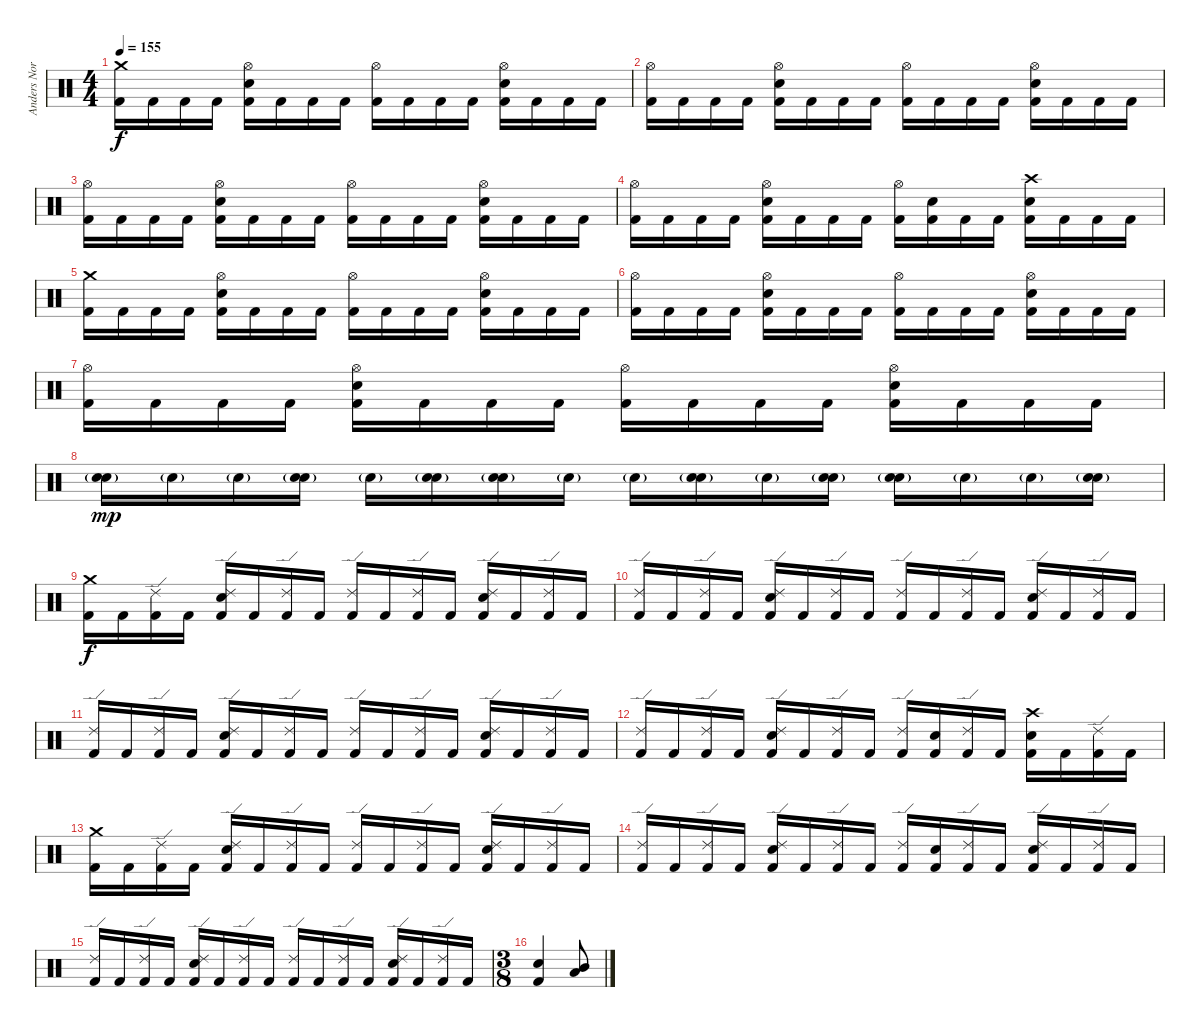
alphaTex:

\track ("Anders Nordin" "Anders Nor") {instrument percussion}
\staff {score}
\articulation defaults
\ts (4 4)
\tempo 155
\clef neutral
\ks c
("Kick (hit) 2" "Crash medium (hit)").16{dy f} "Kick (hit) 2".16 "Kick (hit) 2".16 "Kick (hit) 2".16 ("Kick (hit) 2" "Electric Snare (hit)" "Hi-Hat (open)").16 "Kick (hit) 2".16 "Kick (hit) 2".16 "Kick (hit) 2".16 ("Kick (hit) 2" "Hi-Hat (open)").16 "Kick (hit) 2".16 "Kick (hit) 2".16 "Kick (hit) 2".16 ("Kick (hit) 2" "Electric Snare (hit)" "Hi-Hat (open)").16 "Kick (hit) 2".16 "Kick (hit) 2".16 "Kick (hit) 2".16 |
("Kick (hit) 2" "Hi-Hat (open)").16 "Kick (hit) 2".16 "Kick (hit) 2".16 "Kick (hit) 2".16 ("Kick (hit) 2" "Electric Snare (hit)" "Hi-Hat (open)").16 "Kick (hit) 2".16 "Kick (hit) 2".16 "Kick (hit) 2".16 ("Kick (hit) 2" "Hi-Hat (open)").16 "Kick (hit) 2".16 "Kick (hit) 2".16 "Kick (hit) 2".16 ("Kick (hit) 2" "Electric Snare (hit)" "Hi-Hat (open)").16 "Kick (hit) 2".16 "Kick (hit) 2".16 "Kick (hit) 2".16 |
("Kick (hit) 2" "Hi-Hat (open)").16 "Kick (hit) 2".16 "Kick (hit) 2".16 "Kick (hit) 2".16 ("Kick (hit) 2" "Electric Snare (hit)" "Hi-Hat (open)").16 "Kick (hit) 2".16 "Kick (hit) 2".16 "Kick (hit) 2".16 ("Kick (hit) 2" "Hi-Hat (open)").16 "Kick (hit) 2".16 "Kick (hit) 2".16 "Kick (hit) 2".16 ("Kick (hit) 2" "Electric Snare (hit)" "Hi-Hat (open)").16 "Kick (hit) 2".16 "Kick (hit) 2".16 "Kick (hit) 2".16 |
("Kick (hit) 2" "Hi-Hat (open)").16 "Kick (hit) 2".16 "Kick (hit) 2".16 "Kick (hit) 2".16 ("Kick (hit) 2" "Electric Snare (hit)" "Hi-Hat (open)").16 "Kick (hit) 2".16 "Kick (hit) 2".16 "Kick (hit) 2".16 ("Kick (hit) 2" "Hi-Hat (open)").16 ("Kick (hit) 2" "Electric Snare (hit)").16 "Kick (hit) 2".16 "Kick (hit) 2".16 ("Kick (hit) 2" "Electric Snare (hit)" "Crash high (hit)").16 "Kick (hit) 2".16 "Kick (hit) 2".16 "Kick (hit) 2".16 |
("Kick (hit) 2" "Crash medium (hit)").16 "Kick (hit) 2".16 "Kick (hit) 2".16 "Kick (hit) 2".16 ("Kick (hit) 2" "Electric Snare (hit)" "Hi-Hat (open)").16 "Kick (hit) 2".16 "Kick (hit) 2".16 "Kick (hit) 2".16 ("Kick (hit) 2" "Hi-Hat (open)").16 "Kick (hit) 2".16 "Kick (hit) 2".16 "Kick (hit) 2".16 ("Kick (hit) 2" "Electric Snare (hit)" "Hi-Hat (open)").16 "Kick (hit) 2".16 "Kick (hit) 2".16 "Kick (hit) 2".16 |
("Kick (hit) 2" "Hi-Hat (open)").16 "Kick (hit) 2".16 "Kick (hit) 2".16 "Kick (hit) 2".16 ("Kick (hit) 2" "Electric Snare (hit)" "Hi-Hat (open)").16 "Kick (hit) 2".16 "Kick (hit) 2".16 "Kick (hit) 2".16 ("Kick (hit) 2" "Hi-Hat (open)").16 "Kick (hit) 2".16 "Kick (hit) 2".16 "Kick (hit) 2".16 ("Kick (hit) 2" "Electric Snare (hit)" "Hi-Hat (open)").16 "Kick (hit) 2".16 "Kick (hit) 2".16 "Kick (hit) 2".16 |
("Kick (hit) 2" "Hi-Hat (open)").16 "Kick (hit) 2".16 "Kick (hit) 2".16 "Kick (hit) 2".16 ("Kick (hit) 2" "Electric Snare (hit)" "Hi-Hat (open)").16 "Kick (hit) 2".16 "Kick (hit) 2".16 "Kick (hit) 2".16 ("Kick (hit) 2" "Hi-Hat (open)").16 "Kick (hit) 2".16 "Kick (hit) 2".16 "Kick (hit) 2".16 ("Kick (hit) 2" "Electric Snare (hit)" "Hi-Hat (open)").16 "Kick (hit) 2".16 "Kick (hit) 2".16 "Kick (hit) 2".16 |
("Electric Snare (hit)" "Electric Snare (hit)"{g}).16{dy mp volume 14} "Electric Snare (hit)"{g}.16 "Electric Snare (hit)"{g}.16 ("Electric Snare (hit)" "Electric Snare (hit)"{g}).16 "Electric Snare (hit)"{g}.16 ("Electric Snare (hit)" "Electric Snare (hit)"{g}).16 ("Electric Snare (hit)" "Electric Snare (hit)"{g}).16 "Electric Snare (hit)"{g}.16 "Electric Snare (hit)"{g}.16 ("Electric Snare (hit)" "Electric Snare (hit)"{g}).16 "Electric Snare (hit)"{g}.16 ("Electric Snare (hit)" "Electric Snare (hit)"{g}).16 ("Electric Snare (hit)" "Electric Snare (hit)"{g}).16 "Electric Snare (hit)"{g}.16 "Electric Snare (hit)"{g}.16 ("Electric Snare (hit)" "Electric Snare (hit)"{g}).16 |
("Kick (hit) 2" "Crash medium (hit)").16{dy f volume 12} "Kick (hit) 2".16 ("Kick (hit) 2" "Ride (edge) 2").16 "Kick (hit) 2".16 ("Kick (hit) 2" "Electric Snare (hit)" "Ride (edge) 2").16 "Kick (hit) 2".16 ("Kick (hit) 2" "Ride (edge) 2").16 "Kick (hit) 2".16 ("Kick (hit) 2" "Ride (edge) 2").16 "Kick (hit) 2".16 ("Kick (hit) 2" "Ride (edge) 2").16 "Kick (hit) 2".16 ("Kick (hit) 2" "Electric Snare (hit)" "Ride (edge) 2").16 "Kick (hit) 2".16 ("Kick (hit) 2" "Ride (edge) 2").16 "Kick (hit) 2".16 |
("Kick (hit) 2" "Ride (edge) 2").16 "Kick (hit) 2".16 ("Kick (hit) 2" "Ride (edge) 2").16 "Kick (hit) 2".16 ("Kick (hit) 2" "Electric Snare (hit)" "Ride (edge) 2").16 "Kick (hit) 2".16 ("Kick (hit) 2" "Ride (edge) 2").16 "Kick (hit) 2".16 ("Kick (hit) 2" "Ride (edge) 2").16 "Kick (hit) 2".16 ("Kick (hit) 2" "Ride (edge) 2").16 "Kick (hit) 2".16 ("Kick (hit) 2" "Electric Snare (hit)" "Ride (edge) 2").16 "Kick (hit) 2".16 ("Kick (hit) 2" "Ride (edge) 2").16 "Kick (hit) 2".16 |
("Kick (hit) 2" "Ride (edge) 2").16 "Kick (hit) 2".16 ("Kick (hit) 2" "Ride (edge) 2").16 "Kick (hit) 2".16 ("Kick (hit) 2" "Electric Snare (hit)" "Ride (edge) 2").16 "Kick (hit) 2".16 ("Kick (hit) 2" "Ride (edge) 2").16 "Kick (hit) 2".16 ("Kick (hit) 2" "Ride (edge) 2").16 "Kick (hit) 2".16 ("Kick (hit) 2" "Ride (edge) 2").16 "Kick (hit) 2".16 ("Kick (hit) 2" "Electric Snare (hit)" "Ride (edge) 2").16 "Kick (hit) 2".16 ("Kick (hit) 2" "Ride (edge) 2").16 "Kick (hit) 2".16 |
("Kick (hit) 2" "Ride (edge) 2").16 "Kick (hit) 2".16 ("Kick (hit) 2" "Ride (edge) 2").16 "Kick (hit) 2".16 ("Kick (hit) 2" "Electric Snare (hit)" "Ride (edge) 2").16 "Kick (hit) 2".16 ("Kick (hit) 2" "Ride (edge) 2").16 "Kick (hit) 2".16 ("Kick (hit) 2" "Ride (edge) 2").16 ("Kick (hit) 2" "Electric Snare (hit)").16 ("Kick (hit) 2" "Ride (edge) 2").16 "Kick (hit) 2".16 ("Kick (hit) 2" "Electric Snare (hit)" "Crash high (hit)").16 "Kick (hit) 2".16 ("Kick (hit) 2" "Ride (edge) 2").16 "Kick (hit) 2".16 |
("Kick (hit) 2" "Crash medium (hit)").16 "Kick (hit) 2".16 ("Kick (hit) 2" "Ride (edge) 2").16 "Kick (hit) 2".16 ("Kick (hit) 2" "Electric Snare (hit)" "Ride (edge) 2").16 "Kick (hit) 2".16 ("Kick (hit) 2" "Ride (edge) 2").16 "Kick (hit) 2".16 ("Kick (hit) 2" "Ride (edge) 2").16 "Kick (hit) 2".16 ("Kick (hit) 2" "Ride (edge) 2").16 "Kick (hit) 2".16 ("Kick (hit) 2" "Electric Snare (hit)" "Ride (edge) 2").16 "Kick (hit) 2".16 ("Kick (hit) 2" "Ride (edge) 2").16 "Kick (hit) 2".16 |
("Kick (hit) 2" "Ride (edge) 2").16 "Kick (hit) 2".16 ("Kick (hit) 2" "Ride (edge) 2").16 "Kick (hit) 2".16 ("Kick (hit) 2" "Electric Snare (hit)" "Ride (edge) 2").16 "Kick (hit) 2".16 ("Kick (hit) 2" "Ride (edge) 2").16 "Kick (hit) 2".16 ("Kick (hit) 2" "Ride (edge) 2").16 ("Kick (hit) 2" "Electric Snare (hit)").16 ("Kick (hit) 2" "Ride (edge) 2").16 "Kick (hit) 2".16 ("Kick (hit) 2" "Electric Snare (hit)" "Ride (edge) 2").16 "Kick (hit) 2".16 ("Kick (hit) 2" "Ride (edge) 2").16 "Kick (hit) 2".16 |
("Kick (hit) 2" "Ride (edge) 2").16 "Kick (hit) 2".16 ("Kick (hit) 2" "Ride (edge) 2").16 "Kick (hit) 2".16 ("Kick (hit) 2" "Electric Snare (hit)" "Ride (edge) 2").16 "Kick (hit) 2".16 ("Kick (hit) 2" "Ride (edge) 2").16 "Kick (hit) 2".16 ("Kick (hit) 2" "Ride (edge) 2").16 "Kick (hit) 2".16 ("Kick (hit) 2" "Ride (edge) 2").16 "Kick (hit) 2".16 ("Kick (hit) 2" "Electric Snare (hit)" "Ride (edge) 2").16 "Kick (hit) 2".16 ("Kick (hit) 2" "Ride (edge) 2").16 "Kick (hit) 2".16 |
\ts (3 8)
("Kick (hit) 2" "Electric Snare (hit)").4 ("Mid Tom (hit)" "Low Tom (hit)").8
